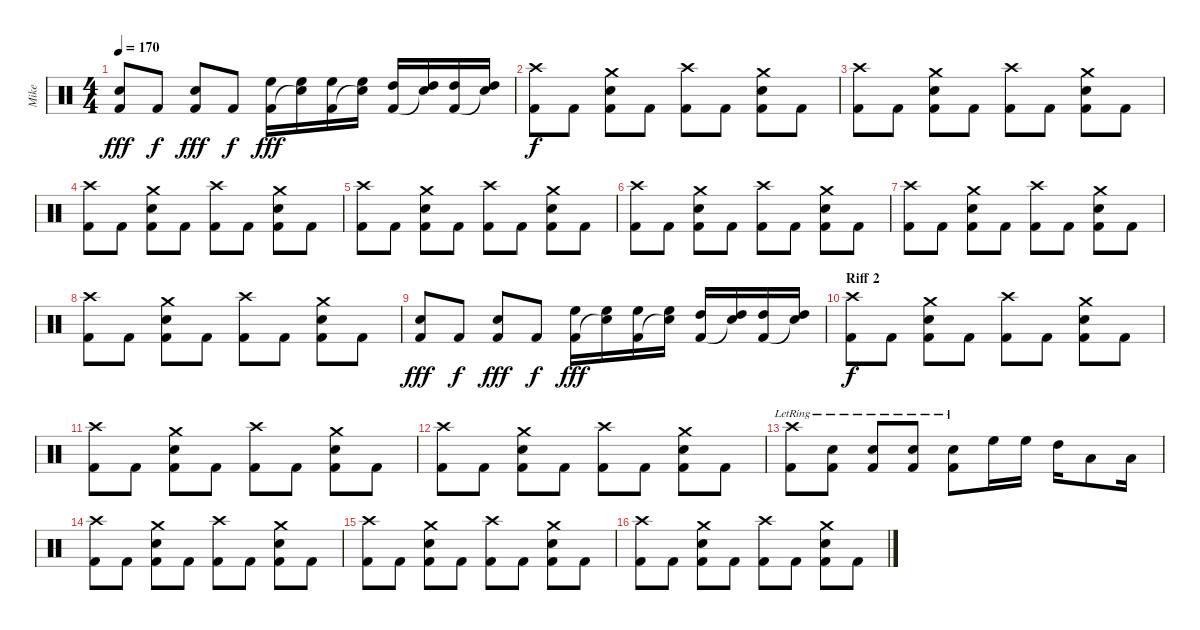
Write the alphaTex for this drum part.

\track ("Mike" "Mike") {instrument percussion}
\staff {score}
\articulation defaults
\ts (4 4)
\tempo 170
\clef neutral
\ks c
("Snare (hit) 2" "Kick (hit) 2").8{dy fff} "Kick (hit) 2".8{dy f} ("Snare (hit) 2" "Kick (hit) 2").8{dy fff} "Kick (hit) 2".8{dy f} ("High Floor Tom (hit)" "Kick (hit) 2").16{dy fff} ("High Floor Tom (hit)" "Snare (hit)"{t}).16 ("High Floor Tom (hit)" "Kick (hit) 2").16 ("High Floor Tom (hit)" "Snare (hit)"{t}).16 ("High Tom (hit)" "Kick (hit) 2").16 ("High Tom (hit)" "Snare (hit)"{t}).16 ("High Tom (hit)" "Kick (hit) 2").16 ("High Tom (hit)" "Snare (hit)"{t}).16 |
("Crash high (hit)" "Kick (hit) 2").8{dy f} "Kick (hit) 2".8 ("Crash medium (hit)" "Snare (hit) 2" "Kick (hit) 2").8 "Kick (hit) 2".8 ("Crash high (hit)" "Kick (hit) 2").8 "Kick (hit) 2".8 ("Crash medium (hit)" "Snare (hit) 2" "Kick (hit) 2").8 "Kick (hit) 2".8 |
("Crash high (hit)" "Kick (hit) 2").8 "Kick (hit) 2".8 ("Crash medium (hit)" "Snare (hit) 2" "Kick (hit) 2").8 "Kick (hit) 2".8 ("Crash high (hit)" "Kick (hit) 2").8 "Kick (hit) 2".8 ("Crash medium (hit)" "Snare (hit) 2" "Kick (hit) 2").8 "Kick (hit) 2".8 |
("Crash high (hit)" "Kick (hit) 2").8 "Kick (hit) 2".8 ("Crash medium (hit)" "Snare (hit) 2" "Kick (hit) 2").8 "Kick (hit) 2".8 ("Crash high (hit)" "Kick (hit) 2").8 "Kick (hit) 2".8 ("Crash medium (hit)" "Snare (hit) 2" "Kick (hit) 2").8 "Kick (hit) 2".8 |
("Crash high (hit)" "Kick (hit) 2").8 "Kick (hit) 2".8 ("Crash medium (hit)" "Snare (hit) 2" "Kick (hit) 2").8 "Kick (hit) 2".8 ("Crash high (hit)" "Kick (hit) 2").8 "Kick (hit) 2".8 ("Crash medium (hit)" "Snare (hit) 2" "Kick (hit) 2").8 "Kick (hit) 2".8 |
("Crash high (hit)" "Kick (hit) 2").8 "Kick (hit) 2".8 ("Crash medium (hit)" "Snare (hit) 2" "Kick (hit) 2").8 "Kick (hit) 2".8 ("Crash high (hit)" "Kick (hit) 2").8 "Kick (hit) 2".8 ("Crash medium (hit)" "Snare (hit) 2" "Kick (hit) 2").8 "Kick (hit) 2".8 |
("Crash high (hit)" "Kick (hit) 2").8 "Kick (hit) 2".8 ("Crash medium (hit)" "Snare (hit) 2" "Kick (hit) 2").8 "Kick (hit) 2".8 ("Crash high (hit)" "Kick (hit) 2").8 "Kick (hit) 2".8 ("Crash medium (hit)" "Snare (hit) 2" "Kick (hit) 2").8 "Kick (hit) 2".8 |
("Crash high (hit)" "Kick (hit) 2").8 "Kick (hit) 2".8 ("Crash medium (hit)" "Snare (hit) 2" "Kick (hit) 2").8 "Kick (hit) 2".8 ("Crash high (hit)" "Kick (hit) 2").8 "Kick (hit) 2".8 ("Crash medium (hit)" "Snare (hit) 2" "Kick (hit) 2").8 "Kick (hit) 2".8 |
("Snare (hit) 2" "Kick (hit) 2").8{dy fff} "Kick (hit) 2".8{dy f} ("Snare (hit) 2" "Kick (hit) 2").8{dy fff} "Kick (hit) 2".8{dy f} ("High Floor Tom (hit)" "Kick (hit) 2").16{dy fff} ("High Floor Tom (hit)" "Snare (hit)"{t}).16 ("High Floor Tom (hit)" "Kick (hit) 2").16 ("High Floor Tom (hit)" "Snare (hit)"{t}).16 ("High Tom (hit)" "Kick (hit) 2").16 ("High Tom (hit)" "Snare (hit)"{t}).16 ("High Tom (hit)" "Kick (hit) 2").16 ("High Tom (hit)" "Snare (hit)"{t}).16 |
\section ("" "Riff 2")
("Crash high (hit)" "Kick (hit) 2").8{dy f} "Kick (hit) 2".8 ("Crash medium (hit)" "Snare (hit) 2" "Kick (hit) 2").8 "Kick (hit) 2".8 ("Crash high (hit)" "Kick (hit) 2").8 "Kick (hit) 2".8 ("Crash medium (hit)" "Snare (hit) 2" "Kick (hit) 2").8 "Kick (hit) 2".8 |
("Crash high (hit)" "Kick (hit) 2").8 "Kick (hit) 2".8 ("Crash medium (hit)" "Snare (hit) 2" "Kick (hit) 2").8 "Kick (hit) 2".8 ("Crash high (hit)" "Kick (hit) 2").8 "Kick (hit) 2".8 ("Crash medium (hit)" "Snare (hit) 2" "Kick (hit) 2").8 "Kick (hit) 2".8 |
("Crash high (hit)" "Kick (hit) 2").8 "Kick (hit) 2".8 ("Crash medium (hit)" "Snare (hit) 2" "Kick (hit) 2").8 "Kick (hit) 2".8 ("Crash high (hit)" "Kick (hit) 2").8 "Kick (hit) 2".8 ("Crash medium (hit)" "Snare (hit) 2" "Kick (hit) 2").8 "Kick (hit) 2".8 |
("Crash high (hit)"{lr} "Kick (hit) 2").8 ("Snare (hit) 2"{lr} "Kick (hit) 2").8 ("Snare (hit) 2"{lr} "Kick (hit) 2").8 ("Snare (hit) 2"{lr} "Kick (hit) 2").8 ("Snare (hit) 2"{lr} "Kick (hit) 2").8 "High Floor Tom (hit)".16 "High Floor Tom (hit)".16 "High Tom (hit)".16 "Low Tom (hit)".8 "Low Tom (hit)".16 |
("Crash high (hit)" "Kick (hit) 2").8 "Kick (hit) 2".8 ("Crash medium (hit)" "Snare (hit) 2" "Kick (hit) 2").8 "Kick (hit) 2".8 ("Crash high (hit)" "Kick (hit) 2").8 "Kick (hit) 2".8 ("Crash medium (hit)" "Snare (hit) 2" "Kick (hit) 2").8 "Kick (hit) 2".8 |
("Crash high (hit)" "Kick (hit) 2").8 "Kick (hit) 2".8 ("Crash medium (hit)" "Snare (hit) 2" "Kick (hit) 2").8 "Kick (hit) 2".8 ("Crash high (hit)" "Kick (hit) 2").8 "Kick (hit) 2".8 ("Crash medium (hit)" "Snare (hit) 2" "Kick (hit) 2").8 "Kick (hit) 2".8 |
("Crash high (hit)" "Kick (hit) 2").8 "Kick (hit) 2".8 ("Crash medium (hit)" "Snare (hit) 2" "Kick (hit) 2").8 "Kick (hit) 2".8 ("Crash high (hit)" "Kick (hit) 2").8 "Kick (hit) 2".8 ("Crash medium (hit)" "Snare (hit) 2" "Kick (hit) 2").8 "Kick (hit) 2".8
